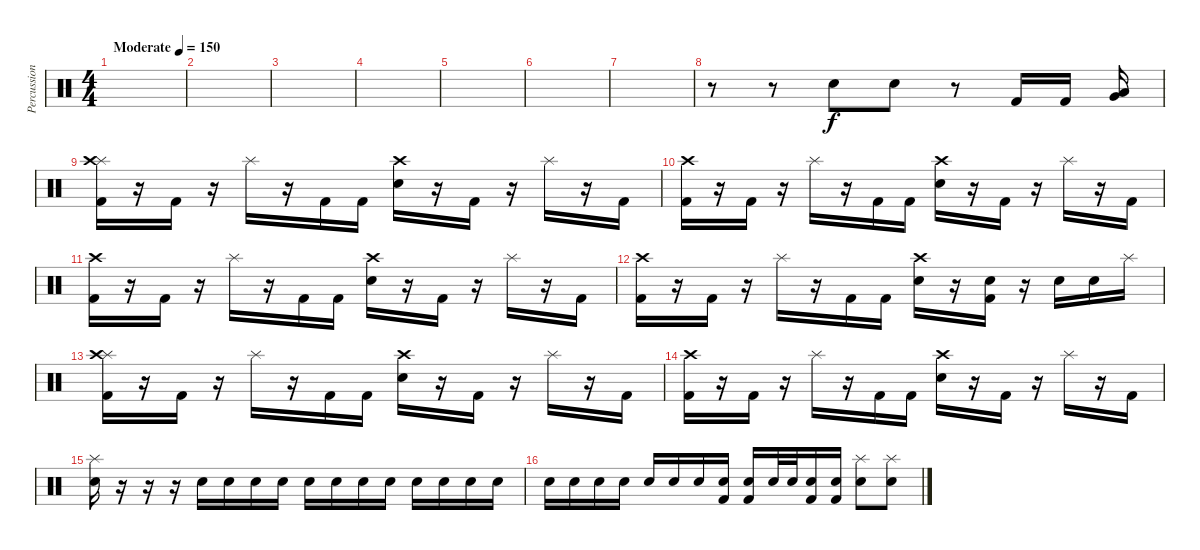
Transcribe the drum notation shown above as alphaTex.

\track ("Percussion" "Percussion") {instrument percussion}
\staff {score}
\articulation defaults
\ts (4 4)
\tempo (150 "Moderate")
\clef neutral
\ks c
|
|
|
|
|
|
|
r.8 r.8 "Snare (hit)".8 "Snare (hit)".8 r.8 "Kick (hit) 2".16 "Kick (hit) 2".16 ("Very Low Tom (hit)" "Low Tom (hit)").16 |
("Splash (hit)" "Crash high (hit)" "Kick (hit) 2").16 r.16 "Kick (hit) 2".16 r.16 "Splash (hit)".16 r.16 "Kick (hit) 2".16 "Kick (hit) 2".16 ("Crash high (hit)" "Snare (hit) 2").16 r.16 "Kick (hit) 2".16 r.16 "Splash (hit)".16 r.16 "Kick (hit) 2".16 |
("Crash high (hit)" "Kick (hit) 2").16 r.16 "Kick (hit) 2".16 r.16 "Splash (hit)".16 r.16 "Kick (hit) 2".16 "Kick (hit) 2".16 ("Crash high (hit)" "Snare (hit) 2").16 r.16 "Kick (hit) 2".16 r.16 "Splash (hit)".16 r.16 "Kick (hit) 2".16 |
("Crash high (hit)" "Kick (hit) 2").16 r.16 "Kick (hit) 2".16 r.16 "Splash (hit)".16 r.16 "Kick (hit) 2".16 "Kick (hit) 2".16 ("Crash high (hit)" "Snare (hit) 2").16 r.16 "Kick (hit) 2".16 r.16 "Splash (hit)".16 r.16 "Kick (hit) 2".16 |
("Crash high (hit)" "Kick (hit) 2").16 r.16 "Kick (hit) 2".16 r.16 "Splash (hit)".16 r.16 "Kick (hit) 2".16 "Kick (hit) 2".16 ("Crash high (hit)" "Snare (hit) 2").16 r.16 ("Snare (hit) 2" "Kick (hit) 2").16 r.16 "Snare (hit) 2".16 "Snare (hit) 2".16 "Splash (hit)".16 |
("Splash (hit)" "Crash high (hit)" "Kick (hit) 2").16 r.16 "Kick (hit) 2".16 r.16 "Splash (hit)".16 r.16 "Kick (hit) 2".16 "Kick (hit) 2".16 ("Crash high (hit)" "Snare (hit) 2").16 r.16 "Kick (hit) 2".16 r.16 "Splash (hit)".16 r.16 "Kick (hit) 2".16 |
("Crash high (hit)" "Kick (hit) 2").16 r.16 "Kick (hit) 2".16 r.16 "Splash (hit)".16 r.16 "Kick (hit) 2".16 "Kick (hit) 2".16 ("Crash high (hit)" "Snare (hit) 2").16 r.16 "Kick (hit) 2".16 r.16 "Splash (hit)".16 r.16 "Kick (hit) 2".16 |
("Splash (hit)" "Snare (hit) 2").16 r.16 r.16 r.16 "Snare (hit) 2".16 "Snare (hit) 2".16 "Snare (hit) 2".16 "Snare (hit) 2".16 "Snare (hit) 2".16 "Snare (hit) 2".16 "Snare (hit) 2".16 "Snare (hit) 2".16 "Snare (hit) 2".16 "Snare (hit) 2".16 "Snare (hit) 2".16 "Snare (hit) 2".16 |
"Snare (hit) 2".16 "Snare (hit) 2".16 "Snare (hit) 2".16 "Snare (hit) 2".16 "Snare (hit) 2".16 "Snare (hit) 2".16 "Snare (hit) 2".16 ("Snare (hit) 2" "Kick (hit) 2").16 ("Snare (hit) 2" "Kick (hit) 2").16 "Snare (hit) 2".32 "Snare (hit) 2".32 ("Snare (hit) 2" "Kick (hit) 2").16 ("Snare (hit) 2" "Kick (hit) 2").16 ("Splash (hit)" "Snare (hit) 2").8 ("Splash (hit)" "Snare (hit) 2").8
